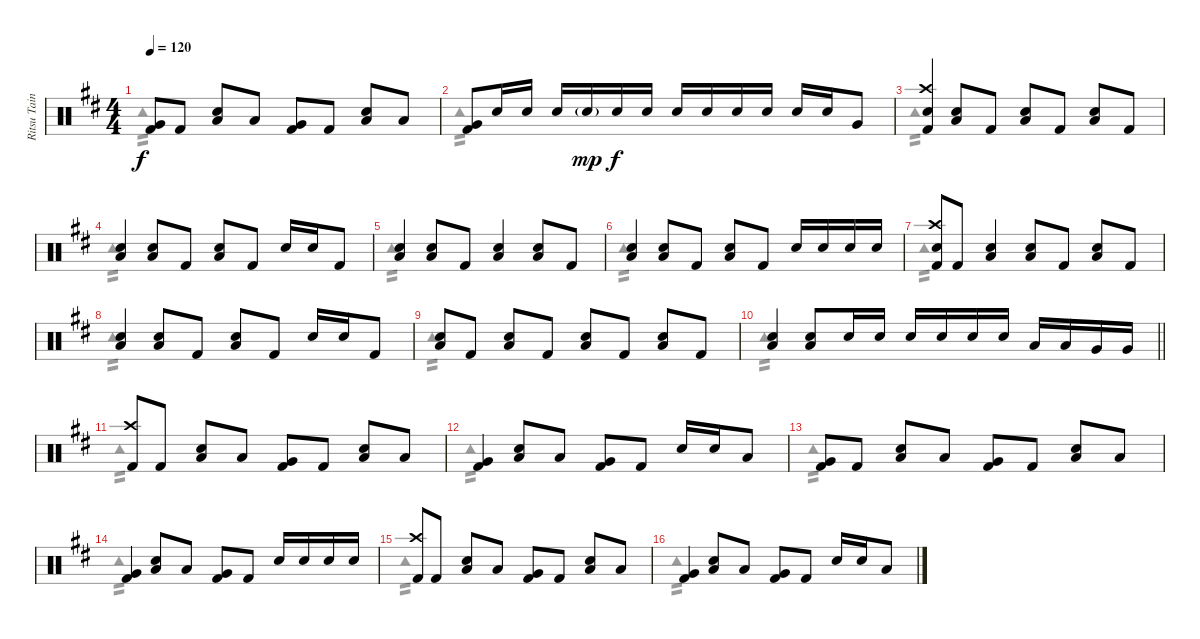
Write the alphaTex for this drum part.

\track ("Ritsu Tainaka" "Ritsu Tain") {instrument percussion}
\staff {score}
\articulation defaults
\voice
\ts (4 4)
\tempo 120
\clef neutral
\ks d
("Very Low Tom (hit)" "Kick (hit) 2").8{dy f} "Kick (hit) 2".8 ("Snare (hit) 2" "Low Floor Tom (hit)").8 "Low Tom (hit)".8 ("Very Low Tom (hit)" "Kick (hit) 2").8 "Kick (hit) 2".8 ("Snare (hit) 2" "Low Floor Tom (hit)").8 "Low Tom (hit)".8 |
("Very Low Tom (hit)" "Kick (hit) 2").8 "Snare (hit) 2".16 "Snare (hit) 2".16 "Snare (hit) 2".16 "Snare (hit) 2"{g}.16{dy mp} "Snare (hit) 2".16{dy f} "Snare (hit) 2".16 "Snare (hit) 2".16 "Snare (hit) 2".16 "Snare (hit) 2".16 "Snare (hit) 2".16 "Snare (hit) 2".16 "Snare (hit) 2".16 "Very Low Tom (hit)".8 |
("Crash high (hit)" "Snare (hit) 2" "Kick (hit) 2").4 ("Snare (hit) 2" "Low Floor Tom (hit)").8 "Kick (hit) 2".8 ("Snare (hit) 2" "Low Floor Tom (hit)").8 "Kick (hit) 2".8 ("Snare (hit) 2" "Low Floor Tom (hit)").8 "Kick (hit) 2".8 |
("Snare (hit) 2" "Low Floor Tom (hit)").4 ("Snare (hit) 2" "Low Floor Tom (hit)").8 "Kick (hit) 2".8 ("Snare (hit) 2" "Low Floor Tom (hit)").8 "Kick (hit) 2".8 "Snare (hit) 2".16 "Snare (hit) 2".16 "Kick (hit) 2".8 |
("Snare (hit) 2" "Low Floor Tom (hit)").4 ("Snare (hit) 2" "Low Floor Tom (hit)").8 "Kick (hit) 2".8 ("Snare (hit) 2" "Low Floor Tom (hit)").4 ("Snare (hit) 2" "Low Floor Tom (hit)").8 "Kick (hit) 2".8 |
("Snare (hit) 2" "Low Floor Tom (hit)").4 ("Snare (hit) 2" "Low Floor Tom (hit)").8 "Kick (hit) 2".8 ("Snare (hit) 2" "Low Floor Tom (hit)").8 "Kick (hit) 2".8 "Snare (hit) 2".16 "Snare (hit) 2".16 "Snare (hit) 2".16 "Snare (hit) 2".16 |
("Crash high (hit)" "Snare (hit) 2" "Kick (hit) 2").8 "Kick (hit) 2".8 ("Snare (hit) 2" "Low Floor Tom (hit)").4 ("Snare (hit) 2" "Low Floor Tom (hit)").8 "Kick (hit) 2".8 ("Snare (hit) 2" "Low Floor Tom (hit)").8 "Kick (hit) 2".8 |
("Snare (hit) 2" "Low Floor Tom (hit)").4 ("Snare (hit) 2" "Low Floor Tom (hit)").8 "Kick (hit) 2".8 ("Snare (hit) 2" "Low Floor Tom (hit)").8 "Kick (hit) 2".8 "Snare (hit) 2".16 "Snare (hit) 2".16 "Kick (hit) 2".8 |
("Snare (hit) 2" "Low Floor Tom (hit)").8 "Kick (hit) 2".8 ("Snare (hit) 2" "Low Floor Tom (hit)").8 "Kick (hit) 2".8 ("Snare (hit) 2" "Low Floor Tom (hit)").8 "Kick (hit) 2".8 ("Snare (hit) 2" "Low Floor Tom (hit)").8 "Kick (hit) 2".8 |
\barLineRight lightlight
("Snare (hit) 2" "Low Floor Tom (hit)").4 ("Snare (hit) 2" "Low Floor Tom (hit)").8 "Snare (hit) 2".16 "Snare (hit) 2".16 "Snare (hit) 2".16 "Snare (hit) 2".16 "Snare (hit) 2".16 "Snare (hit) 2".16 "Low Tom (hit)".16 "Low Tom (hit)".16 "Very Low Tom (hit)".16 "Very Low Tom (hit)".16 |
("Crash high (hit)" "Kick (hit) 2").8 "Kick (hit) 2".8 ("Snare (hit) 2" "Low Floor Tom (hit)").8 "Low Tom (hit)".8 ("Very Low Tom (hit)" "Kick (hit) 2").8 "Kick (hit) 2".8 ("Snare (hit) 2" "Low Floor Tom (hit)").8 "Low Tom (hit)".8 |
("Very Low Tom (hit)" "Kick (hit) 2").4 ("Snare (hit) 2" "Low Floor Tom (hit)").8 "Low Tom (hit)".8 ("Very Low Tom (hit)" "Kick (hit) 2").8 "Kick (hit) 2".8 "Snare (hit) 2".16 "Snare (hit) 2".16 "Low Tom (hit)".8 |
("Very Low Tom (hit)" "Kick (hit) 2").8 "Kick (hit) 2".8 ("Snare (hit) 2" "Low Floor Tom (hit)").8 "Low Tom (hit)".8 ("Very Low Tom (hit)" "Kick (hit) 2").8 "Kick (hit) 2".8 ("Snare (hit) 2" "Low Floor Tom (hit)").8 "Low Tom (hit)".8 |
("Very Low Tom (hit)" "Kick (hit) 2").4 ("Snare (hit) 2" "Low Floor Tom (hit)").8 "Low Tom (hit)".8 ("Very Low Tom (hit)" "Kick (hit) 2").8 "Kick (hit) 2".8 "Snare (hit) 2".16 "Snare (hit) 2".16 "Snare (hit) 2".16 "Snare (hit) 2".16 |
("Crash high (hit)" "Kick (hit) 2").8 "Kick (hit) 2".8 ("Snare (hit) 2" "Low Floor Tom (hit)").8 "Low Tom (hit)".8 ("Very Low Tom (hit)" "Kick (hit) 2").8 "Kick (hit) 2".8 ("Snare (hit) 2" "Low Floor Tom (hit)").8 "Low Tom (hit)".8 |
("Very Low Tom (hit)" "Kick (hit) 2").4 ("Snare (hit) 2" "Low Floor Tom (hit)").8 "Low Tom (hit)".8 ("Very Low Tom (hit)" "Kick (hit) 2").8 "Kick (hit) 2".8 "Snare (hit) 2".16 "Snare (hit) 2".16 "Low Tom (hit)".8
\voice
\clef neutral
\ottava regular
\simile none
\ks d "Tambourine (hit)".1{tp 2 dy f}
|
"Tambourine (hit)".1{tp 2} |
"Tambourine (hit)".1{tp 2} |
"Tambourine (hit)".1{tp 2} |
"Tambourine (hit)".1{tp 2} |
"Tambourine (hit)".1{tp 2} |
"Tambourine (hit)".1{tp 2} |
"Tambourine (hit)".1{tp 2} |
"Tambourine (hit)".1{tp 2} |
\barLineRight lightlight "Tambourine (hit)".1{tp 2}
|
"Tambourine (hit)".1{tp 2} |
"Tambourine (hit)".1{tp 2} |
"Tambourine (hit)".1{tp 2} |
"Tambourine (hit)".1{tp 2} |
"Tambourine (hit)".1{tp 2} |
"Tambourine (hit)".1{tp 2}
